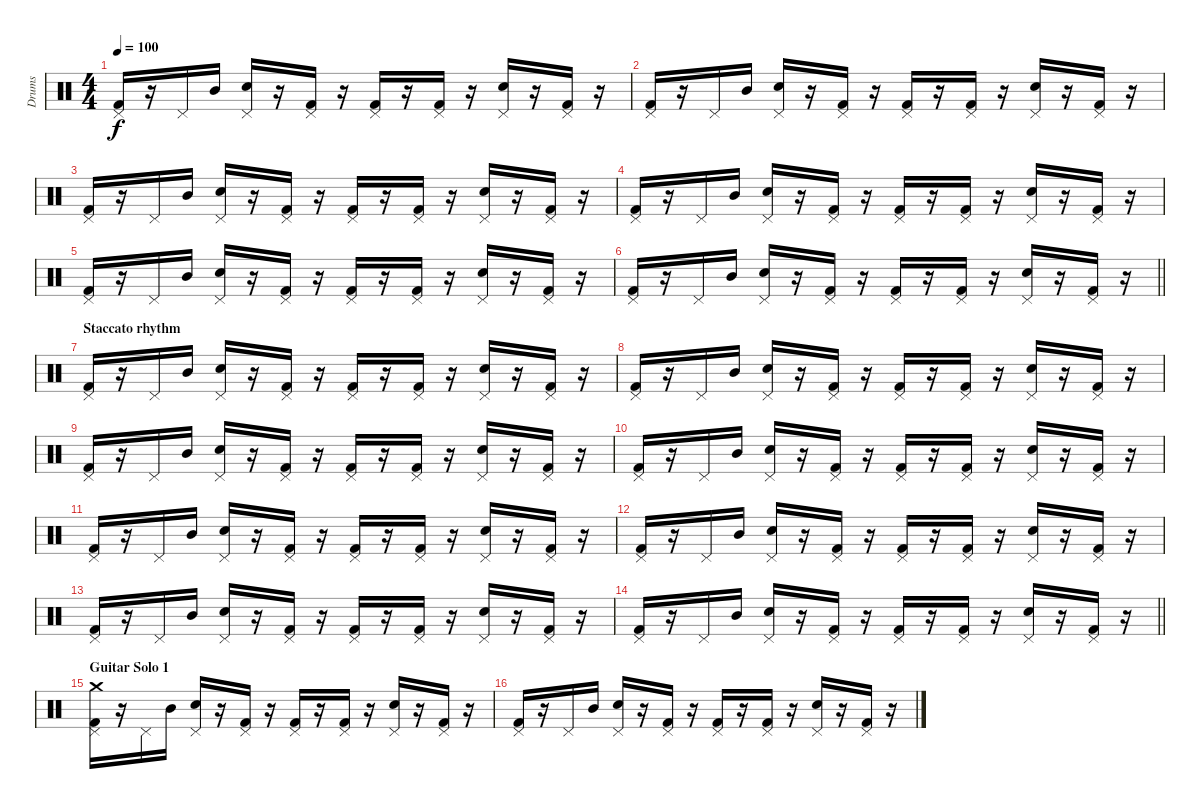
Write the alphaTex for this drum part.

\track ("Drums" "Drums") {instrument percussion}
\staff {score}
\articulation defaults
\ts (4 4)
\tempo 100
\clef neutral
\ks c
("Kick (hit) 2" "Pedal Hi-Hat (hit)").16{dy f} r.16 "Pedal Hi-Hat (hit)".16 "Mid Tom (hit)".16 ("Pedal Hi-Hat (hit)" "Electric Snare (hit)").16 r.16 ("Kick (hit) 2" "Pedal Hi-Hat (hit)").16 r.16 ("Kick (hit) 2" "Pedal Hi-Hat (hit)").16 r.16 ("Kick (hit) 2" "Pedal Hi-Hat (hit)").16 r.16 ("Pedal Hi-Hat (hit)" "Electric Snare (hit)").16 r.16 ("Kick (hit) 2" "Pedal Hi-Hat (hit)").16 r.16 |
("Kick (hit) 2" "Pedal Hi-Hat (hit)").16 r.16 "Pedal Hi-Hat (hit)".16 "Mid Tom (hit)".16 ("Pedal Hi-Hat (hit)" "Electric Snare (hit)").16 r.16 ("Kick (hit) 2" "Pedal Hi-Hat (hit)").16 r.16 ("Kick (hit) 2" "Pedal Hi-Hat (hit)").16 r.16 ("Kick (hit) 2" "Pedal Hi-Hat (hit)").16 r.16 ("Pedal Hi-Hat (hit)" "Electric Snare (hit)").16 r.16 ("Kick (hit) 2" "Pedal Hi-Hat (hit)").16 r.16 |
("Kick (hit) 2" "Pedal Hi-Hat (hit)").16 r.16 "Pedal Hi-Hat (hit)".16 "Mid Tom (hit)".16 ("Pedal Hi-Hat (hit)" "Electric Snare (hit)").16 r.16 ("Kick (hit) 2" "Pedal Hi-Hat (hit)").16 r.16 ("Kick (hit) 2" "Pedal Hi-Hat (hit)").16 r.16 ("Kick (hit) 2" "Pedal Hi-Hat (hit)").16 r.16 ("Pedal Hi-Hat (hit)" "Electric Snare (hit)").16 r.16 ("Kick (hit) 2" "Pedal Hi-Hat (hit)").16 r.16 |
("Kick (hit) 2" "Pedal Hi-Hat (hit)").16 r.16 "Pedal Hi-Hat (hit)".16 "Mid Tom (hit)".16 ("Pedal Hi-Hat (hit)" "Electric Snare (hit)").16 r.16 ("Kick (hit) 2" "Pedal Hi-Hat (hit)").16 r.16 ("Kick (hit) 2" "Pedal Hi-Hat (hit)").16 r.16 ("Kick (hit) 2" "Pedal Hi-Hat (hit)").16 r.16 ("Pedal Hi-Hat (hit)" "Electric Snare (hit)").16 r.16 ("Kick (hit) 2" "Pedal Hi-Hat (hit)").16 r.16 |
("Kick (hit) 2" "Pedal Hi-Hat (hit)").16 r.16 "Pedal Hi-Hat (hit)".16 "Mid Tom (hit)".16 ("Pedal Hi-Hat (hit)" "Electric Snare (hit)").16 r.16 ("Kick (hit) 2" "Pedal Hi-Hat (hit)").16 r.16 ("Kick (hit) 2" "Pedal Hi-Hat (hit)").16 r.16 ("Kick (hit) 2" "Pedal Hi-Hat (hit)").16 r.16 ("Pedal Hi-Hat (hit)" "Electric Snare (hit)").16 r.16 ("Kick (hit) 2" "Pedal Hi-Hat (hit)").16 r.16 |
\barLineRight lightlight
("Kick (hit) 2" "Pedal Hi-Hat (hit)").16 r.16 "Pedal Hi-Hat (hit)".16 "Mid Tom (hit)".16 ("Pedal Hi-Hat (hit)" "Electric Snare (hit)").16 r.16 ("Kick (hit) 2" "Pedal Hi-Hat (hit)").16 r.16 ("Kick (hit) 2" "Pedal Hi-Hat (hit)").16 r.16 ("Kick (hit) 2" "Pedal Hi-Hat (hit)").16 r.16 ("Pedal Hi-Hat (hit)" "Electric Snare (hit)").16 r.16 ("Kick (hit) 2" "Pedal Hi-Hat (hit)").16 r.16 |
\section ("" "Staccato rhythm")
("Kick (hit) 2" "Pedal Hi-Hat (hit)").16 r.16 "Pedal Hi-Hat (hit)".16 "Mid Tom (hit)".16 ("Pedal Hi-Hat (hit)" "Electric Snare (hit)").16 r.16 ("Kick (hit) 2" "Pedal Hi-Hat (hit)").16 r.16 ("Kick (hit) 2" "Pedal Hi-Hat (hit)").16 r.16 ("Kick (hit) 2" "Pedal Hi-Hat (hit)").16 r.16 ("Pedal Hi-Hat (hit)" "Electric Snare (hit)").16 r.16 ("Kick (hit) 2" "Pedal Hi-Hat (hit)").16 r.16 |
("Kick (hit) 2" "Pedal Hi-Hat (hit)").16 r.16 "Pedal Hi-Hat (hit)".16 "Mid Tom (hit)".16 ("Pedal Hi-Hat (hit)" "Electric Snare (hit)").16 r.16 ("Kick (hit) 2" "Pedal Hi-Hat (hit)").16 r.16 ("Kick (hit) 2" "Pedal Hi-Hat (hit)").16 r.16 ("Kick (hit) 2" "Pedal Hi-Hat (hit)").16 r.16 ("Pedal Hi-Hat (hit)" "Electric Snare (hit)").16 r.16 ("Kick (hit) 2" "Pedal Hi-Hat (hit)").16 r.16 |
("Kick (hit) 2" "Pedal Hi-Hat (hit)").16 r.16 "Pedal Hi-Hat (hit)".16 "Mid Tom (hit)".16 ("Pedal Hi-Hat (hit)" "Electric Snare (hit)").16 r.16 ("Kick (hit) 2" "Pedal Hi-Hat (hit)").16 r.16 ("Kick (hit) 2" "Pedal Hi-Hat (hit)").16 r.16 ("Kick (hit) 2" "Pedal Hi-Hat (hit)").16 r.16 ("Pedal Hi-Hat (hit)" "Electric Snare (hit)").16 r.16 ("Kick (hit) 2" "Pedal Hi-Hat (hit)").16 r.16 |
("Kick (hit) 2" "Pedal Hi-Hat (hit)").16 r.16 "Pedal Hi-Hat (hit)".16 "Mid Tom (hit)".16 ("Pedal Hi-Hat (hit)" "Electric Snare (hit)").16 r.16 ("Kick (hit) 2" "Pedal Hi-Hat (hit)").16 r.16 ("Kick (hit) 2" "Pedal Hi-Hat (hit)").16 r.16 ("Kick (hit) 2" "Pedal Hi-Hat (hit)").16 r.16 ("Pedal Hi-Hat (hit)" "Electric Snare (hit)").16 r.16 ("Kick (hit) 2" "Pedal Hi-Hat (hit)").16 r.16 |
("Kick (hit) 2" "Pedal Hi-Hat (hit)").16 r.16 "Pedal Hi-Hat (hit)".16 "Mid Tom (hit)".16 ("Pedal Hi-Hat (hit)" "Electric Snare (hit)").16 r.16 ("Kick (hit) 2" "Pedal Hi-Hat (hit)").16 r.16 ("Kick (hit) 2" "Pedal Hi-Hat (hit)").16 r.16 ("Kick (hit) 2" "Pedal Hi-Hat (hit)").16 r.16 ("Pedal Hi-Hat (hit)" "Electric Snare (hit)").16 r.16 ("Kick (hit) 2" "Pedal Hi-Hat (hit)").16 r.16 |
("Kick (hit) 2" "Pedal Hi-Hat (hit)").16 r.16 "Pedal Hi-Hat (hit)".16 "Mid Tom (hit)".16 ("Pedal Hi-Hat (hit)" "Electric Snare (hit)").16 r.16 ("Kick (hit) 2" "Pedal Hi-Hat (hit)").16 r.16 ("Kick (hit) 2" "Pedal Hi-Hat (hit)").16 r.16 ("Kick (hit) 2" "Pedal Hi-Hat (hit)").16 r.16 ("Pedal Hi-Hat (hit)" "Electric Snare (hit)").16 r.16 ("Kick (hit) 2" "Pedal Hi-Hat (hit)").16 r.16 |
("Kick (hit) 2" "Pedal Hi-Hat (hit)").16 r.16 "Pedal Hi-Hat (hit)".16 "Mid Tom (hit)".16 ("Pedal Hi-Hat (hit)" "Electric Snare (hit)").16 r.16 ("Kick (hit) 2" "Pedal Hi-Hat (hit)").16 r.16 ("Kick (hit) 2" "Pedal Hi-Hat (hit)").16 r.16 ("Kick (hit) 2" "Pedal Hi-Hat (hit)").16 r.16 ("Pedal Hi-Hat (hit)" "Electric Snare (hit)").16 r.16 ("Kick (hit) 2" "Pedal Hi-Hat (hit)").16 r.16 |
\barLineRight lightlight
("Kick (hit) 2" "Pedal Hi-Hat (hit)").16 r.16 "Pedal Hi-Hat (hit)".16 "Mid Tom (hit)".16 ("Pedal Hi-Hat (hit)" "Electric Snare (hit)").16 r.16 ("Kick (hit) 2" "Pedal Hi-Hat (hit)").16 r.16 ("Kick (hit) 2" "Pedal Hi-Hat (hit)").16 r.16 ("Kick (hit) 2" "Pedal Hi-Hat (hit)").16 r.16 ("Pedal Hi-Hat (hit)" "Electric Snare (hit)").16 r.16 ("Kick (hit) 2" "Pedal Hi-Hat (hit)").16 r.16 |
\section ("" "Guitar Solo 1")
("Kick (hit) 2" "Pedal Hi-Hat (hit)" "Crash medium (hit)").16 r.16 "Pedal Hi-Hat (hit)".16 "Mid Tom (hit)".16 ("Pedal Hi-Hat (hit)" "Electric Snare (hit)").16 r.16 ("Kick (hit) 2" "Pedal Hi-Hat (hit)").16 r.16 ("Kick (hit) 2" "Pedal Hi-Hat (hit)").16 r.16 ("Kick (hit) 2" "Pedal Hi-Hat (hit)").16 r.16 ("Pedal Hi-Hat (hit)" "Electric Snare (hit)").16 r.16 ("Kick (hit) 2" "Pedal Hi-Hat (hit)").16 r.16 |
("Kick (hit) 2" "Pedal Hi-Hat (hit)").16 r.16 "Pedal Hi-Hat (hit)".16 "Mid Tom (hit)".16 ("Pedal Hi-Hat (hit)" "Electric Snare (hit)").16 r.16 ("Kick (hit) 2" "Pedal Hi-Hat (hit)").16 r.16 ("Kick (hit) 2" "Pedal Hi-Hat (hit)").16 r.16 ("Kick (hit) 2" "Pedal Hi-Hat (hit)").16 r.16 ("Pedal Hi-Hat (hit)" "Electric Snare (hit)").16 r.16 ("Kick (hit) 2" "Pedal Hi-Hat (hit)").16 r.16
